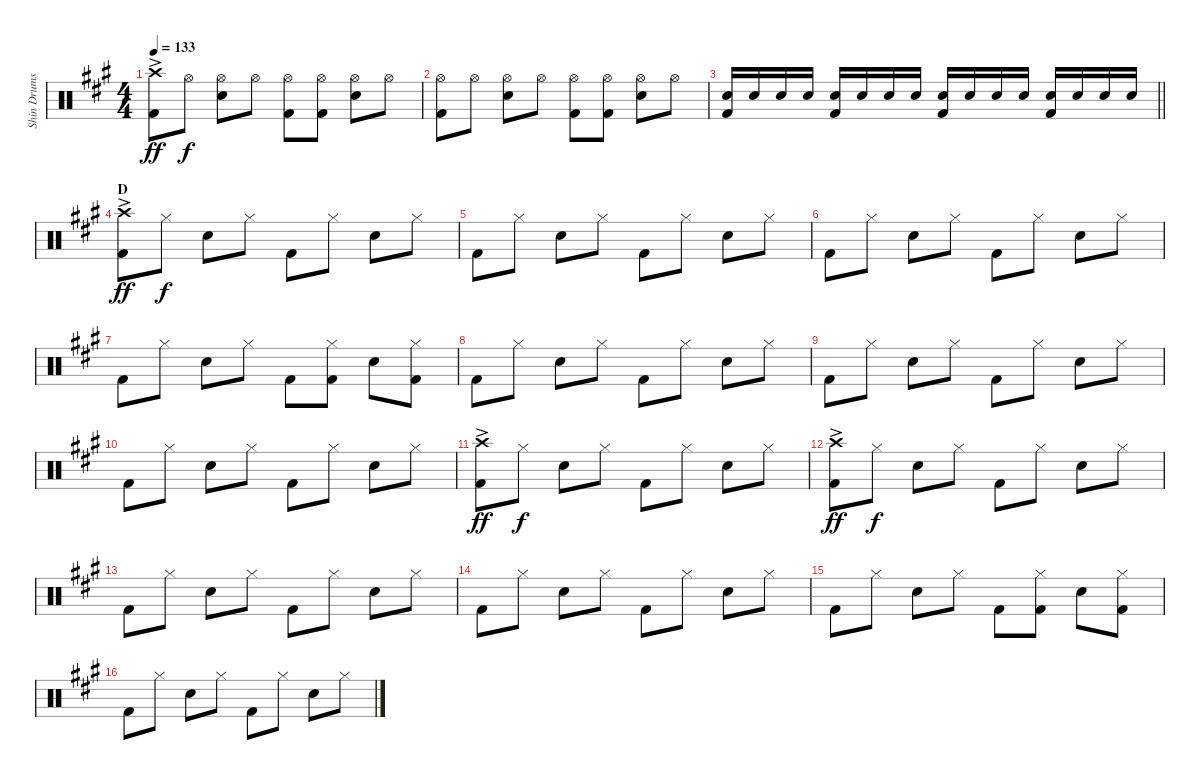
\track ("Shin Drums" "Shin Drums") {instrument percussion}
\staff {score}
\articulation defaults
\ts (4 4)
\tempo 133
\clef neutral
\ks a
("Crash high (hit)"{ac} "Kick (hit) 2").8{dy ff} "Hi-Hat (open)".8{dy f} ("Hi-Hat (open)" "Snare (hit) 2").8 "Hi-Hat (open)".8 ("Hi-Hat (open)" "Kick (hit) 2").8 ("Hi-Hat (open)" "Kick (hit) 2").8 ("Hi-Hat (open)" "Snare (hit) 2").8 "Hi-Hat (open)".8 |
("Hi-Hat (open)" "Kick (hit) 2").8 "Hi-Hat (open)".8 ("Hi-Hat (open)" "Snare (hit) 2").8 "Hi-Hat (open)".8 ("Hi-Hat (open)" "Kick (hit) 2").8 ("Hi-Hat (open)" "Kick (hit) 2").8 ("Hi-Hat (open)" "Snare (hit) 2").8 "Hi-Hat (open)".8 |
\barLineRight lightlight
("Snare (hit) 2" "Kick (hit) 2").16 "Snare (hit) 2".16 "Snare (hit) 2".16 "Snare (hit) 2".16 ("Snare (hit) 2" "Kick (hit) 2").16 "Snare (hit) 2".16 "Snare (hit) 2".16 "Snare (hit) 2".16 ("Snare (hit) 2" "Kick (hit) 2").16 "Snare (hit) 2".16 "Snare (hit) 2".16 "Snare (hit) 2".16 ("Snare (hit) 2" "Kick (hit) 2").16 "Snare (hit) 2".16 "Snare (hit) 2".16 "Snare (hit) 2".16 |
\section ("" "D")
("Crash high (hit)"{ac} "Kick (hit) 2").8{dy ff} "Hi-Hat (closed)".8{dy f} "Snare (hit) 2".8 "Hi-Hat (closed)".8 "Kick (hit) 2".8 "Hi-Hat (closed)".8 "Snare (hit) 2".8 "Hi-Hat (closed)".8 |
"Kick (hit) 2".8 "Hi-Hat (closed)".8 "Snare (hit) 2".8 "Hi-Hat (closed)".8 "Kick (hit) 2".8 "Hi-Hat (closed)".8 "Snare (hit) 2".8 "Hi-Hat (closed)".8 |
"Kick (hit) 2".8 "Hi-Hat (closed)".8 "Snare (hit) 2".8 "Hi-Hat (closed)".8 "Kick (hit) 2".8 "Hi-Hat (closed)".8 "Snare (hit) 2".8 "Hi-Hat (closed)".8 |
"Kick (hit) 2".8 "Hi-Hat (closed)".8 "Snare (hit) 2".8 "Hi-Hat (closed)".8 "Kick (hit) 2".8 ("Hi-Hat (closed)" "Kick (hit) 2").8 "Snare (hit) 2".8 ("Hi-Hat (closed)" "Kick (hit) 2").8 |
"Kick (hit) 2".8 "Hi-Hat (closed)".8 "Snare (hit) 2".8 "Hi-Hat (closed)".8 "Kick (hit) 2".8 "Hi-Hat (closed)".8 "Snare (hit) 2".8 "Hi-Hat (closed)".8 |
"Kick (hit) 2".8 "Hi-Hat (closed)".8 "Snare (hit) 2".8 "Hi-Hat (closed)".8 "Kick (hit) 2".8 "Hi-Hat (closed)".8 "Snare (hit) 2".8 "Hi-Hat (closed)".8 |
"Kick (hit) 2".8 "Hi-Hat (closed)".8 "Snare (hit) 2".8 "Hi-Hat (closed)".8 "Kick (hit) 2".8 "Hi-Hat (closed)".8 "Snare (hit) 2".8 "Hi-Hat (closed)".8 |
("Crash high (hit)"{ac} "Kick (hit) 2").8{dy ff} "Hi-Hat (closed)".8{dy f} "Snare (hit) 2".8 "Hi-Hat (closed)".8 "Kick (hit) 2".8 "Hi-Hat (closed)".8 "Snare (hit) 2".8 "Hi-Hat (closed)".8 |
("Crash high (hit)"{ac} "Kick (hit) 2").8{dy ff} "Hi-Hat (closed)".8{dy f} "Snare (hit) 2".8 "Hi-Hat (closed)".8 "Kick (hit) 2".8 "Hi-Hat (closed)".8 "Snare (hit) 2".8 "Hi-Hat (closed)".8 |
"Kick (hit) 2".8 "Hi-Hat (closed)".8 "Snare (hit) 2".8 "Hi-Hat (closed)".8 "Kick (hit) 2".8 "Hi-Hat (closed)".8 "Snare (hit) 2".8 "Hi-Hat (closed)".8 |
"Kick (hit) 2".8 "Hi-Hat (closed)".8 "Snare (hit) 2".8 "Hi-Hat (closed)".8 "Kick (hit) 2".8 "Hi-Hat (closed)".8 "Snare (hit) 2".8 "Hi-Hat (closed)".8 |
"Kick (hit) 2".8 "Hi-Hat (closed)".8 "Snare (hit) 2".8 "Hi-Hat (closed)".8 "Kick (hit) 2".8 ("Hi-Hat (closed)" "Kick (hit) 2").8 "Snare (hit) 2".8 ("Hi-Hat (closed)" "Kick (hit) 2").8 |
"Kick (hit) 2".8 "Hi-Hat (closed)".8 "Snare (hit) 2".8 "Hi-Hat (closed)".8 "Kick (hit) 2".8 "Hi-Hat (closed)".8 "Snare (hit) 2".8 "Hi-Hat (closed)".8
